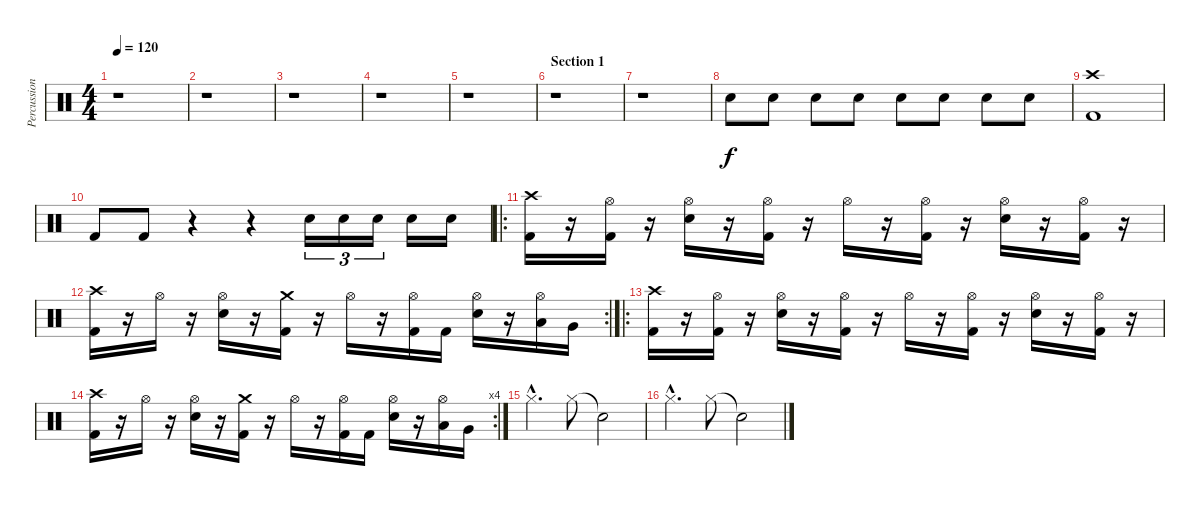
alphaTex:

\track ("Percussion" "Percussion") {instrument percussion}
\staff {score}
\articulation defaults
\ts (4 4)
\tempo 120
\clef neutral
\ks c
r.1{dy f} |
r.1 |
r.1 |
r.1 |
r.1 |
\section ("" "Section 1")
r.1 |
r.1 |
"Snare (hit) 2".8 "Snare (hit) 2".8 "Snare (hit) 2".8 "Snare (hit) 2".8 "Snare (hit) 2".8 "Snare (hit) 2".8 "Snare (hit) 2".8 "Snare (hit) 2".8 |
("Crash high (hit)" "Kick (hit) 2").1 |
"Kick (hit) 2".8 "Kick (hit) 2".8 r.4 r.4 "Snare (hit) 2".16{tu (3 2)} "Snare (hit) 2".16{tu (3 2)} "Snare (hit) 2".16{tu (3 2)} "Snare (hit) 2".16 "Snare (hit) 2".16 |
\ro
("Crash high (hit)" "Kick (hit) 2").16 r.16 ("Hi-Hat (open)" "Kick (hit) 2").16 r.16 ("Hi-Hat (open)" "Snare (hit) 2").16 r.16 ("Hi-Hat (open)" "Kick (hit) 2").16 r.16 "Hi-Hat (open)".16 r.16 ("Hi-Hat (open)" "Kick (hit) 2").16 r.16 ("Hi-Hat (open)" "Snare (hit) 2").16 r.16 ("Hi-Hat (open)" "Kick (hit) 2").16 r.16 |
\rc 2
("Crash high (hit)" "Kick (hit) 2").16 r.16 "Hi-Hat (open)".16 r.16 ("Hi-Hat (open)" "Snare (hit) 2").16 r.16 ("Crash medium (hit)" "Kick (hit) 2").16 r.16 "Hi-Hat (open)".16 r.16 ("Hi-Hat (open)" "Kick (hit) 2").16 "Kick (hit) 2".16 ("Hi-Hat (open)" "Snare (hit) 2").16 r.16 ("Hi-Hat (open)" "Low Tom (hit)").16 "Very Low Tom (hit)".16 |
\ro
("Crash high (hit)" "Kick (hit) 2").16 r.16 ("Hi-Hat (open)" "Kick (hit) 2").16 r.16 ("Hi-Hat (open)" "Snare (hit) 2").16 r.16 ("Hi-Hat (open)" "Kick (hit) 2").16 r.16 "Hi-Hat (open)".16 r.16 ("Hi-Hat (open)" "Kick (hit) 2").16 r.16 ("Hi-Hat (open)" "Snare (hit) 2").16 r.16 ("Hi-Hat (open)" "Kick (hit) 2").16 r.16 |
\rc 4
("Crash high (hit)" "Kick (hit) 2").16 r.16 "Hi-Hat (open)".16 r.16 ("Hi-Hat (open)" "Snare (hit) 2").16 r.16 ("Crash medium (hit)" "Kick (hit) 2").16 r.16 "Hi-Hat (open)".16 r.16 ("Hi-Hat (open)" "Kick (hit) 2").16 "Kick (hit) 2".16 ("Hi-Hat (open)" "Snare (hit) 2").16 r.16 ("Hi-Hat (open)" "Low Tom (hit)").16 "Very Low Tom (hit)".16 |
"Hi-Hat (closed)"{hac}.4{d} "Hi-Hat (closed)".8 "Snare (hit)"{t}.2 |
"Hi-Hat (closed)"{hac}.4{d} "Hi-Hat (closed)".8 "Snare (hit)"{t}.2
